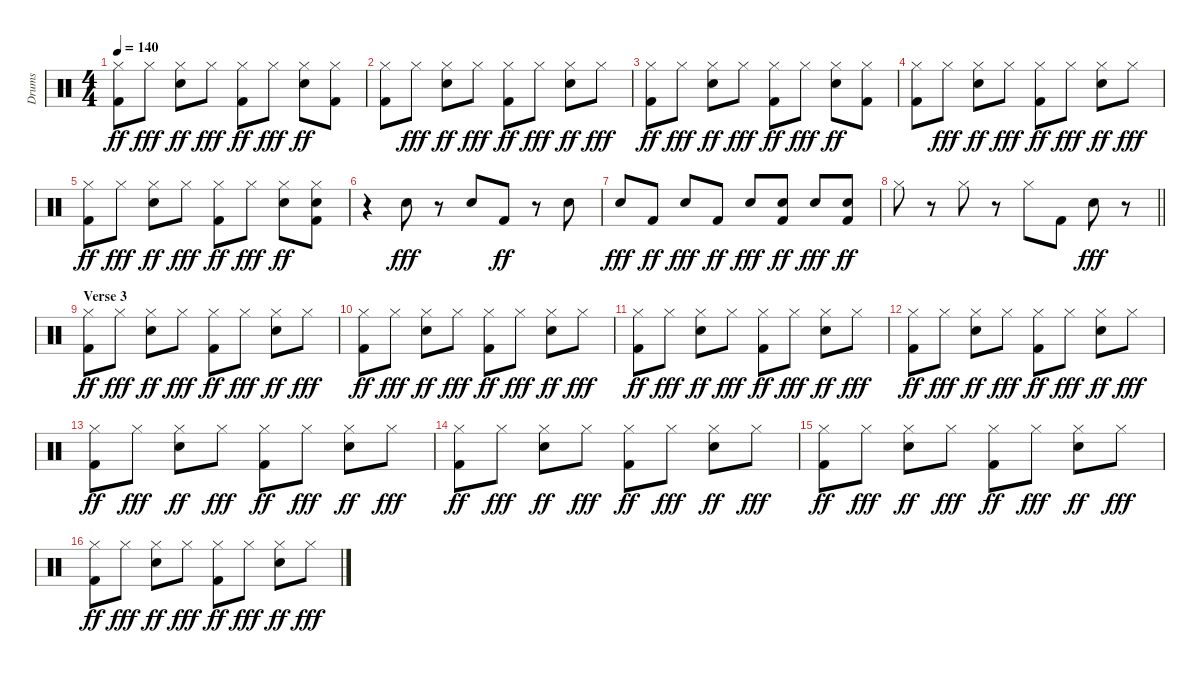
\track ("Drums" "Drums") {instrument percussion}
\staff {score}
\articulation defaults
\ts (4 4)
\tempo 140
\clef neutral
\ks c
("Hi-Hat (closed)" "Kick (hit) 2").8{dy ff} "Hi-Hat (closed)".8{dy fff} ("Hi-Hat (closed)" "Snare (hit) 2").8{dy ff} "Hi-Hat (closed)".8{dy fff} ("Hi-Hat (closed)" "Kick (hit) 2").8{dy ff} "Hi-Hat (closed)".8{dy fff} ("Hi-Hat (closed)" "Snare (hit) 2").8{dy ff} ("Hi-Hat (closed)" "Kick (hit) 2").8 |
("Hi-Hat (closed)" "Kick (hit) 2").8 "Hi-Hat (closed)".8{dy fff} ("Hi-Hat (closed)" "Snare (hit) 2").8{dy ff} "Hi-Hat (closed)".8{dy fff} ("Hi-Hat (closed)" "Kick (hit) 2").8{dy ff} "Hi-Hat (closed)".8{dy fff} ("Hi-Hat (closed)" "Snare (hit) 2").8{dy ff} "Hi-Hat (closed)".8{dy fff} |
("Hi-Hat (closed)" "Kick (hit) 2").8{dy ff} "Hi-Hat (closed)".8{dy fff} ("Hi-Hat (closed)" "Snare (hit) 2").8{dy ff} "Hi-Hat (closed)".8{dy fff} ("Hi-Hat (closed)" "Kick (hit) 2").8{dy ff} "Hi-Hat (closed)".8{dy fff} ("Hi-Hat (closed)" "Snare (hit) 2").8{dy ff} ("Hi-Hat (closed)" "Kick (hit) 2").8 |
("Hi-Hat (closed)" "Kick (hit) 2").8 "Hi-Hat (closed)".8{dy fff} ("Hi-Hat (closed)" "Snare (hit) 2").8{dy ff} "Hi-Hat (closed)".8{dy fff} ("Hi-Hat (closed)" "Kick (hit) 2").8{dy ff} "Hi-Hat (closed)".8{dy fff} ("Hi-Hat (closed)" "Snare (hit) 2").8{dy ff} "Hi-Hat (closed)".8{dy fff} |
("Hi-Hat (closed)" "Kick (hit) 2").8{dy ff} "Hi-Hat (closed)".8{dy fff} ("Hi-Hat (closed)" "Snare (hit) 2").8{dy ff} "Hi-Hat (closed)".8{dy fff} ("Hi-Hat (closed)" "Kick (hit) 2").8{dy ff} "Hi-Hat (closed)".8{dy fff} ("Hi-Hat (closed)" "Snare (hit) 2").8{dy ff} ("Hi-Hat (closed)" "Snare (hit) 2" "Kick (hit) 2").8 |
r.4 "Snare (hit) 2".8{dy fff} r.8 "Snare (hit) 2".8 "Kick (hit) 2".8{dy ff} r.8 "Snare (hit) 2".8 |
"Snare (hit) 2".8{dy fff} "Kick (hit) 2".8{dy ff} "Snare (hit) 2".8{dy fff} "Kick (hit) 2".8{dy ff} "Snare (hit) 2".8{dy fff} ("Snare (hit) 2" "Kick (hit) 2").8{dy ff} "Snare (hit) 2".8{dy fff} ("Snare (hit) 2" "Kick (hit) 2").8{dy ff} |
\barLineRight lightlight "Hi-Hat (closed)".8
r.8 "Hi-Hat (closed)".8 r.8 "Hi-Hat (closed)".8 "Kick (hit) 2".8 "Snare (hit) 2".8{dy fff} r.8 |
\section ("" "Verse 3")
("Hi-Hat (closed)" "Kick (hit) 2").8{dy ff} "Hi-Hat (closed)".8{dy fff} ("Hi-Hat (closed)" "Snare (hit) 2").8{dy ff} "Hi-Hat (closed)".8{dy fff} ("Hi-Hat (closed)" "Kick (hit) 2").8{dy ff} "Hi-Hat (closed)".8{dy fff} ("Hi-Hat (closed)" "Snare (hit) 2").8{dy ff} "Hi-Hat (closed)".8{dy fff} |
("Hi-Hat (closed)" "Kick (hit) 2").8{dy ff} "Hi-Hat (closed)".8{dy fff} ("Hi-Hat (closed)" "Snare (hit) 2").8{dy ff} "Hi-Hat (closed)".8{dy fff} ("Hi-Hat (closed)" "Kick (hit) 2").8{dy ff} "Hi-Hat (closed)".8{dy fff} ("Hi-Hat (closed)" "Snare (hit) 2").8{dy ff} "Hi-Hat (closed)".8{dy fff} |
("Hi-Hat (closed)" "Kick (hit) 2").8{dy ff} "Hi-Hat (closed)".8{dy fff} ("Hi-Hat (closed)" "Snare (hit) 2").8{dy ff} "Hi-Hat (closed)".8{dy fff} ("Hi-Hat (closed)" "Kick (hit) 2").8{dy ff} "Hi-Hat (closed)".8{dy fff} ("Hi-Hat (closed)" "Snare (hit) 2").8{dy ff} "Hi-Hat (closed)".8{dy fff} |
("Hi-Hat (closed)" "Kick (hit) 2").8{dy ff} "Hi-Hat (closed)".8{dy fff} ("Hi-Hat (closed)" "Snare (hit) 2").8{dy ff} "Hi-Hat (closed)".8{dy fff} ("Hi-Hat (closed)" "Kick (hit) 2").8{dy ff} "Hi-Hat (closed)".8{dy fff} ("Hi-Hat (closed)" "Snare (hit) 2").8{dy ff} "Hi-Hat (closed)".8{dy fff} |
("Hi-Hat (closed)" "Kick (hit) 2").8{dy ff} "Hi-Hat (closed)".8{dy fff} ("Hi-Hat (closed)" "Snare (hit) 2").8{dy ff} "Hi-Hat (closed)".8{dy fff} ("Hi-Hat (closed)" "Kick (hit) 2").8{dy ff} "Hi-Hat (closed)".8{dy fff} ("Hi-Hat (closed)" "Snare (hit) 2").8{dy ff} "Hi-Hat (closed)".8{dy fff} |
("Hi-Hat (closed)" "Kick (hit) 2").8{dy ff} "Hi-Hat (closed)".8{dy fff} ("Hi-Hat (closed)" "Snare (hit) 2").8{dy ff} "Hi-Hat (closed)".8{dy fff} ("Hi-Hat (closed)" "Kick (hit) 2").8{dy ff} "Hi-Hat (closed)".8{dy fff} ("Hi-Hat (closed)" "Snare (hit) 2").8{dy ff} "Hi-Hat (closed)".8{dy fff} |
("Hi-Hat (closed)" "Kick (hit) 2").8{dy ff} "Hi-Hat (closed)".8{dy fff} ("Hi-Hat (closed)" "Snare (hit) 2").8{dy ff} "Hi-Hat (closed)".8{dy fff} ("Hi-Hat (closed)" "Kick (hit) 2").8{dy ff} "Hi-Hat (closed)".8{dy fff} ("Hi-Hat (closed)" "Snare (hit) 2").8{dy ff} "Hi-Hat (closed)".8{dy fff} |
("Hi-Hat (closed)" "Kick (hit) 2").8{dy ff} "Hi-Hat (closed)".8{dy fff} ("Hi-Hat (closed)" "Snare (hit) 2").8{dy ff} "Hi-Hat (closed)".8{dy fff} ("Hi-Hat (closed)" "Kick (hit) 2").8{dy ff} "Hi-Hat (closed)".8{dy fff} ("Hi-Hat (closed)" "Snare (hit) 2").8{dy ff} "Hi-Hat (closed)".8{dy fff}
